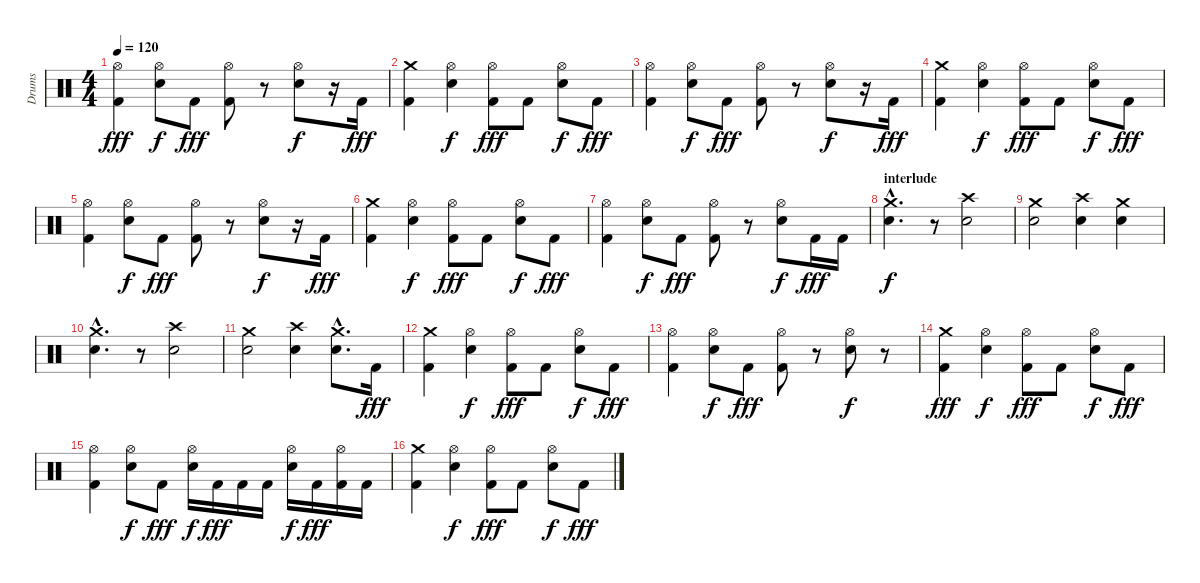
\track ("Drums" "Drums") {instrument percussion}
\staff {score}
\articulation defaults
\ts (4 4)
\tempo 120
\clef neutral
\ks c
("Kick (hit) 2" "Hi-Hat (open)").4{dy fff} ("Electric Snare (hit)" "Hi-Hat (open)").8{dy f} "Kick (hit) 2".8{dy fff} ("Kick (hit) 2" "Hi-Hat (open)").8 r.8 ("Electric Snare (hit)" "Hi-Hat (open)").8{dy f} r.16 "Kick (hit) 2".16{dy fff} |
("Kick (hit) 2" "Crash medium (hit)").4 ("Electric Snare (hit)" "Hi-Hat (open)").4{dy f} ("Kick (hit) 2" "Hi-Hat (open)").8{dy fff} "Kick (hit) 2".8 ("Electric Snare (hit)" "Hi-Hat (open)").8{dy f} "Kick (hit) 2".8{dy fff} |
("Kick (hit) 2" "Hi-Hat (open)").4 ("Electric Snare (hit)" "Hi-Hat (open)").8{dy f} "Kick (hit) 2".8{dy fff} ("Kick (hit) 2" "Hi-Hat (open)").8 r.8 ("Electric Snare (hit)" "Hi-Hat (open)").8{dy f} r.16 "Kick (hit) 2".16{dy fff} |
("Kick (hit) 2" "Crash medium (hit)").4 ("Electric Snare (hit)" "Hi-Hat (open)").4{dy f} ("Kick (hit) 2" "Hi-Hat (open)").8{dy fff} "Kick (hit) 2".8 ("Electric Snare (hit)" "Hi-Hat (open)").8{dy f} "Kick (hit) 2".8{dy fff} |
("Kick (hit) 2" "Hi-Hat (open)").4 ("Electric Snare (hit)" "Hi-Hat (open)").8{dy f} "Kick (hit) 2".8{dy fff} ("Kick (hit) 2" "Hi-Hat (open)").8 r.8 ("Electric Snare (hit)" "Hi-Hat (open)").8{dy f} r.16 "Kick (hit) 2".16{dy fff} |
("Kick (hit) 2" "Crash medium (hit)").4 ("Electric Snare (hit)" "Hi-Hat (open)").4{dy f} ("Kick (hit) 2" "Hi-Hat (open)").8{dy fff} "Kick (hit) 2".8 ("Electric Snare (hit)" "Hi-Hat (open)").8{dy f} "Kick (hit) 2".8{dy fff} |
("Kick (hit) 2" "Hi-Hat (open)").4 ("Electric Snare (hit)" "Hi-Hat (open)").8{dy f} "Kick (hit) 2".8{dy fff} ("Kick (hit) 2" "Hi-Hat (open)").8 r.8 ("Electric Snare (hit)" "Hi-Hat (open)").8{dy f} "Kick (hit) 2".16{dy fff} "Kick (hit) 2".16 |
\section ("" "interlude")
("Crash medium (hit)"{hac} "Electric Snare (hit)"{hac}).4{d dy f} r.8 ("Crash high (hit)" "Electric Snare (hit)").2 |
("Crash medium (hit)" "Electric Snare (hit)").2 ("Crash high (hit)" "Electric Snare (hit)").4 ("Crash medium (hit)" "Electric Snare (hit)").4 |
("Crash medium (hit)"{hac} "Electric Snare (hit)"{hac}).4{d} r.8 ("Crash high (hit)" "Electric Snare (hit)").2 |
("Crash medium (hit)" "Electric Snare (hit)").2 ("Crash high (hit)" "Electric Snare (hit)").4 ("Crash medium (hit)"{hac} "Electric Snare (hit)"{hac}).8{d} "Kick (hit) 2".16{dy fff} |
("Kick (hit) 2" "Crash medium (hit)").4 ("Electric Snare (hit)" "Hi-Hat (open)").4{dy f} ("Kick (hit) 2" "Hi-Hat (open)").8{dy fff} "Kick (hit) 2".8 ("Electric Snare (hit)" "Hi-Hat (open)").8{dy f} "Kick (hit) 2".8{dy fff} |
("Kick (hit) 2" "Hi-Hat (open)").4 ("Electric Snare (hit)" "Hi-Hat (open)").8{dy f} "Kick (hit) 2".8{dy fff} ("Kick (hit) 2" "Hi-Hat (open)").8 r.8 ("Electric Snare (hit)" "Hi-Hat (open)").8{dy f} r.8 |
("Kick (hit) 2" "Crash medium (hit)").4{dy fff} ("Electric Snare (hit)" "Hi-Hat (open)").4{dy f} ("Kick (hit) 2" "Hi-Hat (open)").8{dy fff} "Kick (hit) 2".8 ("Electric Snare (hit)" "Hi-Hat (open)").8{dy f} "Kick (hit) 2".8{dy fff} |
("Kick (hit) 2" "Hi-Hat (open)").4 ("Electric Snare (hit)" "Hi-Hat (open)").8{dy f} "Kick (hit) 2".8{dy fff} ("Electric Snare (hit)" "Hi-Hat (open)").16{dy f} "Kick (hit) 2".16{dy fff} "Kick (hit) 2".16 "Kick (hit) 2".16 ("Electric Snare (hit)" "Hi-Hat (open)").16{dy f} "Kick (hit) 2".16{dy fff} ("Kick (hit) 2" "Hi-Hat (open)").16 "Kick (hit) 2".16 |
("Kick (hit) 2" "Crash medium (hit)").4 ("Electric Snare (hit)" "Hi-Hat (open)").4{dy f} ("Kick (hit) 2" "Hi-Hat (open)").8{dy fff} "Kick (hit) 2".8 ("Electric Snare (hit)" "Hi-Hat (open)").8{dy f} "Kick (hit) 2".8{dy fff}
